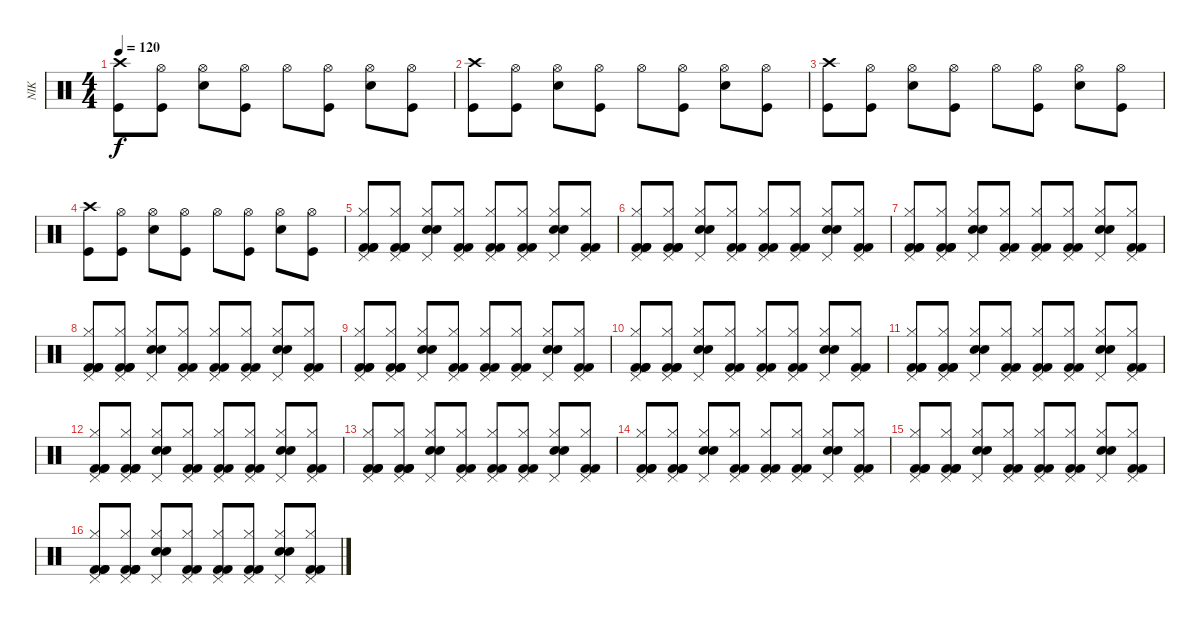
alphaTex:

\track ("NIK" "NIK") {instrument percussion}
\staff {score}
\articulation defaults
\ts (4 4)
\tempo 120
\clef neutral
\ks c
("Crash high (hit)" "Kick (hit)").8{dy f} ("Hi-Hat (open)" "Kick (hit)").8 ("Hi-Hat (open)" "Electric Snare (hit)").8 ("Hi-Hat (open)" "Kick (hit)").8 "Hi-Hat (open)".8 ("Hi-Hat (open)" "Kick (hit)").8 ("Hi-Hat (open)" "Electric Snare (hit)").8 ("Hi-Hat (open)" "Kick (hit)").8 |
("Crash high (hit)" "Kick (hit)").8 ("Hi-Hat (open)" "Kick (hit)").8 ("Hi-Hat (open)" "Electric Snare (hit)").8 ("Hi-Hat (open)" "Kick (hit)").8 "Hi-Hat (open)".8 ("Hi-Hat (open)" "Kick (hit)").8 ("Hi-Hat (open)" "Electric Snare (hit)").8 ("Hi-Hat (open)" "Kick (hit)").8 |
("Crash high (hit)" "Kick (hit)").8 ("Hi-Hat (open)" "Kick (hit)").8 ("Hi-Hat (open)" "Electric Snare (hit)").8 ("Hi-Hat (open)" "Kick (hit)").8 "Hi-Hat (open)".8 ("Hi-Hat (open)" "Kick (hit)").8 ("Hi-Hat (open)" "Electric Snare (hit)").8 ("Hi-Hat (open)" "Kick (hit)").8 |
("Crash high (hit)" "Kick (hit)").8 ("Hi-Hat (open)" "Kick (hit)").8 ("Hi-Hat (open)" "Electric Snare (hit)").8 ("Hi-Hat (open)" "Kick (hit)").8 "Hi-Hat (open)".8 ("Hi-Hat (open)" "Kick (hit)").8 ("Hi-Hat (open)" "Electric Snare (hit)").8 ("Hi-Hat (open)" "Kick (hit)").8 |
("Pedal Hi-Hat (hit)" "Hi-Hat (closed)" "Kick (hit) 2" "Kick (hit) 2" "Kick (hit) 2").8 ("Pedal Hi-Hat (hit)" "Hi-Hat (closed)" "Kick (hit) 2" "Kick (hit) 2" "Kick (hit) 2").8 ("Pedal Hi-Hat (hit)" "Hi-Hat (closed)" "Snare (hit) 2" "Snare (hit) 2").8 ("Pedal Hi-Hat (hit)" "Hi-Hat (closed)" "Kick (hit) 2" "Kick (hit) 2").8 ("Pedal Hi-Hat (hit)" "Hi-Hat (closed)" "Kick (hit) 2" "Kick (hit) 2").8 ("Pedal Hi-Hat (hit)" "Hi-Hat (closed)" "Kick (hit) 2" "Kick (hit) 2").8 ("Pedal Hi-Hat (hit)" "Hi-Hat (closed)" "Snare (hit) 2" "Snare (hit) 2").8 ("Pedal Hi-Hat (hit)" "Hi-Hat (closed)" "Kick (hit) 2" "Kick (hit) 2").8 |
("Pedal Hi-Hat (hit)" "Hi-Hat (closed)" "Kick (hit) 2" "Kick (hit) 2" "Kick (hit) 2").8 ("Pedal Hi-Hat (hit)" "Hi-Hat (closed)" "Kick (hit) 2" "Kick (hit) 2" "Kick (hit) 2").8 ("Pedal Hi-Hat (hit)" "Hi-Hat (closed)" "Snare (hit) 2" "Snare (hit) 2").8 ("Pedal Hi-Hat (hit)" "Hi-Hat (closed)" "Kick (hit) 2" "Kick (hit) 2").8 ("Pedal Hi-Hat (hit)" "Hi-Hat (closed)" "Kick (hit) 2" "Kick (hit) 2").8 ("Pedal Hi-Hat (hit)" "Hi-Hat (closed)" "Kick (hit) 2" "Kick (hit) 2").8 ("Pedal Hi-Hat (hit)" "Hi-Hat (closed)" "Snare (hit) 2" "Snare (hit) 2").8 ("Pedal Hi-Hat (hit)" "Hi-Hat (closed)" "Kick (hit) 2" "Kick (hit) 2").8 |
("Pedal Hi-Hat (hit)" "Hi-Hat (closed)" "Kick (hit) 2" "Kick (hit) 2" "Kick (hit) 2").8 ("Pedal Hi-Hat (hit)" "Hi-Hat (closed)" "Kick (hit) 2" "Kick (hit) 2" "Kick (hit) 2").8 ("Pedal Hi-Hat (hit)" "Hi-Hat (closed)" "Snare (hit) 2" "Snare (hit) 2").8 ("Pedal Hi-Hat (hit)" "Hi-Hat (closed)" "Kick (hit) 2" "Kick (hit) 2").8 ("Pedal Hi-Hat (hit)" "Hi-Hat (closed)" "Kick (hit) 2" "Kick (hit) 2").8 ("Pedal Hi-Hat (hit)" "Hi-Hat (closed)" "Kick (hit) 2" "Kick (hit) 2").8 ("Pedal Hi-Hat (hit)" "Hi-Hat (closed)" "Snare (hit) 2" "Snare (hit) 2").8 ("Pedal Hi-Hat (hit)" "Hi-Hat (closed)" "Kick (hit) 2" "Kick (hit) 2").8 |
("Pedal Hi-Hat (hit)" "Hi-Hat (closed)" "Kick (hit) 2" "Kick (hit) 2" "Kick (hit) 2").8 ("Pedal Hi-Hat (hit)" "Hi-Hat (closed)" "Kick (hit) 2" "Kick (hit) 2" "Kick (hit) 2").8 ("Pedal Hi-Hat (hit)" "Hi-Hat (closed)" "Snare (hit) 2" "Snare (hit) 2").8 ("Pedal Hi-Hat (hit)" "Hi-Hat (closed)" "Kick (hit) 2" "Kick (hit) 2").8 ("Pedal Hi-Hat (hit)" "Hi-Hat (closed)" "Kick (hit) 2" "Kick (hit) 2").8 ("Pedal Hi-Hat (hit)" "Hi-Hat (closed)" "Kick (hit) 2" "Kick (hit) 2").8 ("Pedal Hi-Hat (hit)" "Hi-Hat (closed)" "Snare (hit) 2" "Snare (hit) 2").8 ("Pedal Hi-Hat (hit)" "Hi-Hat (closed)" "Kick (hit) 2" "Kick (hit) 2").8 |
("Pedal Hi-Hat (hit)" "Hi-Hat (closed)" "Kick (hit) 2" "Kick (hit) 2" "Kick (hit) 2").8 ("Pedal Hi-Hat (hit)" "Hi-Hat (closed)" "Kick (hit) 2" "Kick (hit) 2" "Kick (hit) 2").8 ("Pedal Hi-Hat (hit)" "Hi-Hat (closed)" "Snare (hit) 2" "Snare (hit) 2").8 ("Pedal Hi-Hat (hit)" "Hi-Hat (closed)" "Kick (hit) 2" "Kick (hit) 2").8 ("Pedal Hi-Hat (hit)" "Hi-Hat (closed)" "Kick (hit) 2" "Kick (hit) 2").8 ("Pedal Hi-Hat (hit)" "Hi-Hat (closed)" "Kick (hit) 2" "Kick (hit) 2").8 ("Pedal Hi-Hat (hit)" "Hi-Hat (closed)" "Snare (hit) 2" "Snare (hit) 2").8 ("Pedal Hi-Hat (hit)" "Hi-Hat (closed)" "Kick (hit) 2" "Kick (hit) 2").8 |
("Pedal Hi-Hat (hit)" "Hi-Hat (closed)" "Kick (hit) 2" "Kick (hit) 2" "Kick (hit) 2").8 ("Pedal Hi-Hat (hit)" "Hi-Hat (closed)" "Kick (hit) 2" "Kick (hit) 2" "Kick (hit) 2").8 ("Pedal Hi-Hat (hit)" "Hi-Hat (closed)" "Snare (hit) 2" "Snare (hit) 2").8 ("Pedal Hi-Hat (hit)" "Hi-Hat (closed)" "Kick (hit) 2" "Kick (hit) 2").8 ("Pedal Hi-Hat (hit)" "Hi-Hat (closed)" "Kick (hit) 2" "Kick (hit) 2").8 ("Pedal Hi-Hat (hit)" "Hi-Hat (closed)" "Kick (hit) 2" "Kick (hit) 2").8 ("Pedal Hi-Hat (hit)" "Hi-Hat (closed)" "Snare (hit) 2" "Snare (hit) 2").8 ("Pedal Hi-Hat (hit)" "Hi-Hat (closed)" "Kick (hit) 2" "Kick (hit) 2").8 |
("Pedal Hi-Hat (hit)" "Hi-Hat (closed)" "Kick (hit) 2" "Kick (hit) 2" "Kick (hit) 2").8 ("Pedal Hi-Hat (hit)" "Hi-Hat (closed)" "Kick (hit) 2" "Kick (hit) 2" "Kick (hit) 2").8 ("Pedal Hi-Hat (hit)" "Hi-Hat (closed)" "Snare (hit) 2" "Snare (hit) 2").8 ("Pedal Hi-Hat (hit)" "Hi-Hat (closed)" "Kick (hit) 2" "Kick (hit) 2").8 ("Pedal Hi-Hat (hit)" "Hi-Hat (closed)" "Kick (hit) 2" "Kick (hit) 2").8 ("Pedal Hi-Hat (hit)" "Hi-Hat (closed)" "Kick (hit) 2" "Kick (hit) 2").8 ("Pedal Hi-Hat (hit)" "Hi-Hat (closed)" "Snare (hit) 2" "Snare (hit) 2").8 ("Pedal Hi-Hat (hit)" "Hi-Hat (closed)" "Kick (hit) 2" "Kick (hit) 2").8 |
("Pedal Hi-Hat (hit)" "Hi-Hat (closed)" "Kick (hit) 2" "Kick (hit) 2" "Kick (hit) 2").8 ("Pedal Hi-Hat (hit)" "Hi-Hat (closed)" "Kick (hit) 2" "Kick (hit) 2" "Kick (hit) 2").8 ("Pedal Hi-Hat (hit)" "Hi-Hat (closed)" "Snare (hit) 2" "Snare (hit) 2").8 ("Pedal Hi-Hat (hit)" "Hi-Hat (closed)" "Kick (hit) 2" "Kick (hit) 2").8 ("Pedal Hi-Hat (hit)" "Hi-Hat (closed)" "Kick (hit) 2" "Kick (hit) 2").8 ("Pedal Hi-Hat (hit)" "Hi-Hat (closed)" "Kick (hit) 2" "Kick (hit) 2").8 ("Pedal Hi-Hat (hit)" "Hi-Hat (closed)" "Snare (hit) 2" "Snare (hit) 2").8 ("Pedal Hi-Hat (hit)" "Hi-Hat (closed)" "Kick (hit) 2" "Kick (hit) 2").8 |
("Pedal Hi-Hat (hit)" "Hi-Hat (closed)" "Kick (hit) 2" "Kick (hit) 2" "Kick (hit) 2").8 ("Pedal Hi-Hat (hit)" "Hi-Hat (closed)" "Kick (hit) 2" "Kick (hit) 2" "Kick (hit) 2").8 ("Pedal Hi-Hat (hit)" "Hi-Hat (closed)" "Snare (hit) 2" "Snare (hit) 2").8 ("Pedal Hi-Hat (hit)" "Hi-Hat (closed)" "Kick (hit) 2" "Kick (hit) 2").8 ("Pedal Hi-Hat (hit)" "Hi-Hat (closed)" "Kick (hit) 2" "Kick (hit) 2").8 ("Pedal Hi-Hat (hit)" "Hi-Hat (closed)" "Kick (hit) 2" "Kick (hit) 2").8 ("Pedal Hi-Hat (hit)" "Hi-Hat (closed)" "Snare (hit) 2" "Snare (hit) 2").8 ("Pedal Hi-Hat (hit)" "Hi-Hat (closed)" "Kick (hit) 2" "Kick (hit) 2").8 |
("Pedal Hi-Hat (hit)" "Hi-Hat (closed)" "Kick (hit) 2" "Kick (hit) 2" "Kick (hit) 2").8 ("Pedal Hi-Hat (hit)" "Hi-Hat (closed)" "Kick (hit) 2" "Kick (hit) 2" "Kick (hit) 2").8 ("Pedal Hi-Hat (hit)" "Hi-Hat (closed)" "Snare (hit) 2" "Snare (hit) 2").8 ("Pedal Hi-Hat (hit)" "Hi-Hat (closed)" "Kick (hit) 2" "Kick (hit) 2").8 ("Pedal Hi-Hat (hit)" "Hi-Hat (closed)" "Kick (hit) 2" "Kick (hit) 2").8 ("Pedal Hi-Hat (hit)" "Hi-Hat (closed)" "Kick (hit) 2" "Kick (hit) 2").8 ("Pedal Hi-Hat (hit)" "Hi-Hat (closed)" "Snare (hit) 2" "Snare (hit) 2").8 ("Pedal Hi-Hat (hit)" "Hi-Hat (closed)" "Kick (hit) 2" "Kick (hit) 2").8 |
("Pedal Hi-Hat (hit)" "Hi-Hat (closed)" "Kick (hit) 2" "Kick (hit) 2" "Kick (hit) 2").8 ("Pedal Hi-Hat (hit)" "Hi-Hat (closed)" "Kick (hit) 2" "Kick (hit) 2" "Kick (hit) 2").8 ("Pedal Hi-Hat (hit)" "Hi-Hat (closed)" "Snare (hit) 2" "Snare (hit) 2").8 ("Pedal Hi-Hat (hit)" "Hi-Hat (closed)" "Kick (hit) 2" "Kick (hit) 2").8 ("Pedal Hi-Hat (hit)" "Hi-Hat (closed)" "Kick (hit) 2" "Kick (hit) 2").8 ("Pedal Hi-Hat (hit)" "Hi-Hat (closed)" "Kick (hit) 2" "Kick (hit) 2").8 ("Pedal Hi-Hat (hit)" "Hi-Hat (closed)" "Snare (hit) 2" "Snare (hit) 2").8 ("Pedal Hi-Hat (hit)" "Hi-Hat (closed)" "Kick (hit) 2" "Kick (hit) 2").8 |
("Pedal Hi-Hat (hit)" "Hi-Hat (closed)" "Kick (hit) 2" "Kick (hit) 2" "Kick (hit) 2").8 ("Pedal Hi-Hat (hit)" "Hi-Hat (closed)" "Kick (hit) 2" "Kick (hit) 2" "Kick (hit) 2").8 ("Pedal Hi-Hat (hit)" "Hi-Hat (closed)" "Snare (hit) 2" "Snare (hit) 2").8 ("Pedal Hi-Hat (hit)" "Hi-Hat (closed)" "Kick (hit) 2" "Kick (hit) 2").8 ("Pedal Hi-Hat (hit)" "Hi-Hat (closed)" "Kick (hit) 2" "Kick (hit) 2").8 ("Pedal Hi-Hat (hit)" "Hi-Hat (closed)" "Kick (hit) 2" "Kick (hit) 2").8 ("Pedal Hi-Hat (hit)" "Hi-Hat (closed)" "Snare (hit) 2" "Snare (hit) 2").8 ("Pedal Hi-Hat (hit)" "Hi-Hat (closed)" "Kick (hit) 2" "Kick (hit) 2").8
